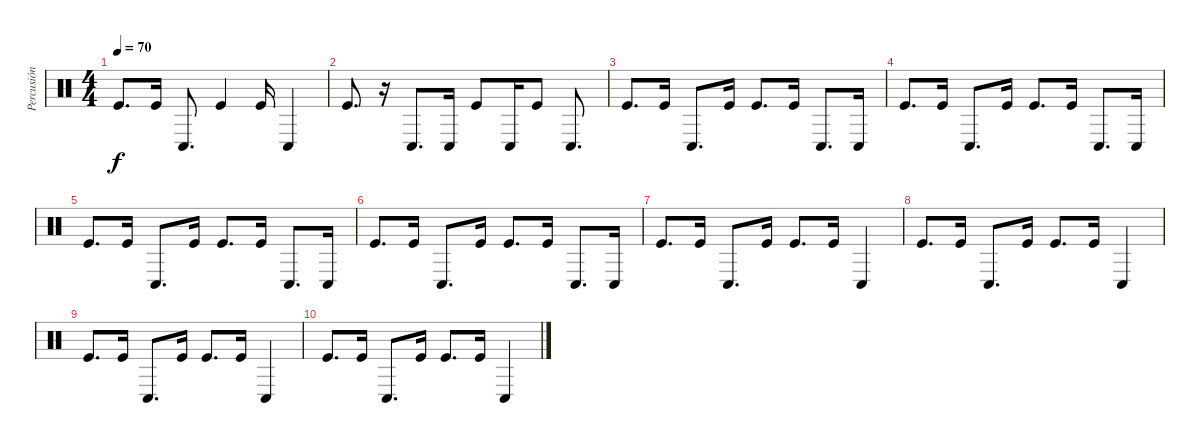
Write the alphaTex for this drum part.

\track ("Percusión" "Percusión") {instrument percussion}
\staff {score}
\articulation defaults
\ts (4 4)
\tempo 70
\clef neutral
\ks c "Kick (hit)".8{d dy f} "Kick (hit)".16 "Conga low (hit)".8{d} "Kick (hit)".4 "Kick (hit)".16 "Conga low (hit)".4
|
"Kick (hit)".8{d} r.16 "Conga low (hit)".8{d} "Conga low (hit)".16 "Kick (hit)".8 "Conga low (hit)".16 "Kick (hit)".8 "Conga low (hit)".8{d} |
"Kick (hit)".8{d} "Kick (hit)".16 "Conga low (hit)".8{d} "Kick (hit)".16 "Kick (hit)".8{d} "Kick (hit)".16 "Conga low (hit)".8{d} "Conga low (hit)".16 |
"Kick (hit)".8{d} "Kick (hit)".16 "Conga low (hit)".8{d} "Kick (hit)".16 "Kick (hit)".8{d} "Kick (hit)".16 "Conga low (hit)".8{d} "Conga low (hit)".16 |
"Kick (hit)".8{d} "Kick (hit)".16 "Conga low (hit)".8{d} "Kick (hit)".16 "Kick (hit)".8{d} "Kick (hit)".16 "Conga low (hit)".8{d} "Conga low (hit)".16 |
"Kick (hit)".8{d} "Kick (hit)".16 "Conga low (hit)".8{d} "Kick (hit)".16 "Kick (hit)".8{d} "Kick (hit)".16 "Conga low (hit)".8{d} "Conga low (hit)".16 |
"Kick (hit)".8{d} "Kick (hit)".16 "Conga low (hit)".8{d} "Kick (hit)".16 "Kick (hit)".8{d} "Kick (hit)".16 "Conga low (hit)".4 |
"Kick (hit)".8{d} "Kick (hit)".16 "Conga low (hit)".8{d} "Kick (hit)".16 "Kick (hit)".8{d} "Kick (hit)".16 "Conga low (hit)".4 |
"Kick (hit)".8{d} "Kick (hit)".16 "Conga low (hit)".8{d} "Kick (hit)".16 "Kick (hit)".8{d} "Kick (hit)".16 "Conga low (hit)".4 |
"Kick (hit)".8{d} "Kick (hit)".16 "Conga low (hit)".8{d} "Kick (hit)".16 "Kick (hit)".8{d} "Kick (hit)".16 "Conga low (hit)".4
